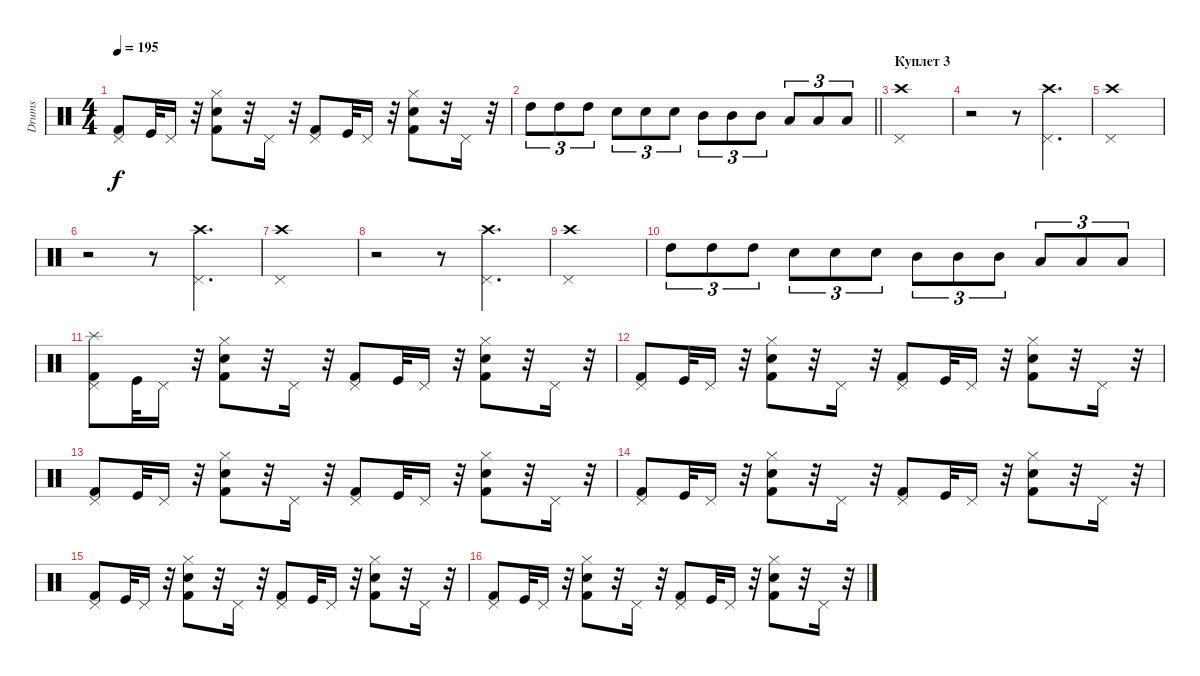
\track ("Drums" "Drums") {instrument percussion}
\staff {score}
\articulation defaults
\ts (4 4)
\tempo 195
\clef neutral
\ks c
("Kick (hit) 2" "Pedal Hi-Hat (hit)").8{dy f} "Kick (hit)".32 "Pedal Hi-Hat (hit)".16 r.32 ("Snare (hit) 2" "Kick (hit) 2" "Hi-Hat (closed)").8 r.32 "Pedal Hi-Hat (hit)".16 r.32 ("Kick (hit) 2" "Pedal Hi-Hat (hit)").8 "Kick (hit)".32 "Pedal Hi-Hat (hit)".16 r.32 ("Snare (hit) 2" "Kick (hit) 2" "Hi-Hat (closed)").8 r.32 "Pedal Hi-Hat (hit)".16 r.32 |
\barLineRight lightlight "High Tom (hit)".8{tu (3 2)} "High Tom (hit)".8{tu (3 2)} "High Tom (hit)".8{tu (3 2)} "Electric Snare (hit)".8{tu (3 2)} "Electric Snare (hit)".8{tu (3 2)} "Electric Snare (hit)".8{tu (3 2)} "Mid Tom (hit)".8{tu (3 2)} "Mid Tom (hit)".8{tu (3 2)} "Mid Tom (hit)".8{tu (3 2)} "Low Tom (hit)".8{tu (3 2)} "Low Tom (hit)".8{tu (3 2)} "Low Tom (hit)".8{tu (3 2)}
|
\section ("" "Куплет 3")
("Crash high (hit)" "Pedal Hi-Hat (hit)").1 |
r.2 r.8 ("Crash high (hit)" "Pedal Hi-Hat (hit)").4{d} |
("Crash high (hit)" "Pedal Hi-Hat (hit)").1 |
r.2 r.8 ("Crash high (hit)" "Pedal Hi-Hat (hit)").4{d} |
("Crash high (hit)" "Pedal Hi-Hat (hit)").1 |
r.2 r.8 ("Crash high (hit)" "Pedal Hi-Hat (hit)").4{d} |
("Crash high (hit)" "Pedal Hi-Hat (hit)").1 |
"High Tom (hit)".8{tu (3 2)} "High Tom (hit)".8{tu (3 2)} "High Tom (hit)".8{tu (3 2)} "Electric Snare (hit)".8{tu (3 2)} "Electric Snare (hit)".8{tu (3 2)} "Electric Snare (hit)".8{tu (3 2)} "Mid Tom (hit)".8{tu (3 2)} "Mid Tom (hit)".8{tu (3 2)} "Mid Tom (hit)".8{tu (3 2)} "Low Tom (hit)".8{tu (3 2)} "Low Tom (hit)".8{tu (3 2)} "Low Tom (hit)".8{tu (3 2)} |
("Splash (hit)" "Kick (hit) 2" "Pedal Hi-Hat (hit)").8 "Kick (hit)".32 "Pedal Hi-Hat (hit)".16 r.32 ("Snare (hit) 2" "Kick (hit) 2" "Hi-Hat (closed)").8 r.32 "Pedal Hi-Hat (hit)".16 r.32 ("Kick (hit) 2" "Pedal Hi-Hat (hit)").8 "Kick (hit)".32 "Pedal Hi-Hat (hit)".16 r.32 ("Snare (hit) 2" "Kick (hit) 2" "Hi-Hat (closed)").8 r.32 "Pedal Hi-Hat (hit)".16 r.32 |
("Kick (hit) 2" "Pedal Hi-Hat (hit)").8 "Kick (hit)".32 "Pedal Hi-Hat (hit)".16 r.32 ("Snare (hit) 2" "Kick (hit) 2" "Hi-Hat (closed)").8 r.32 "Pedal Hi-Hat (hit)".16 r.32 ("Kick (hit) 2" "Pedal Hi-Hat (hit)").8 "Kick (hit)".32 "Pedal Hi-Hat (hit)".16 r.32 ("Snare (hit) 2" "Kick (hit) 2" "Hi-Hat (closed)").8 r.32 "Pedal Hi-Hat (hit)".16 r.32 |
("Kick (hit) 2" "Pedal Hi-Hat (hit)").8 "Kick (hit)".32 "Pedal Hi-Hat (hit)".16 r.32 ("Snare (hit) 2" "Kick (hit) 2" "Hi-Hat (closed)").8 r.32 "Pedal Hi-Hat (hit)".16 r.32 ("Kick (hit) 2" "Pedal Hi-Hat (hit)").8 "Kick (hit)".32 "Pedal Hi-Hat (hit)".16 r.32 ("Snare (hit) 2" "Kick (hit) 2" "Hi-Hat (closed)").8 r.32 "Pedal Hi-Hat (hit)".16 r.32 |
("Kick (hit) 2" "Pedal Hi-Hat (hit)").8 "Kick (hit)".32 "Pedal Hi-Hat (hit)".16 r.32 ("Snare (hit) 2" "Kick (hit) 2" "Hi-Hat (closed)").8 r.32 "Pedal Hi-Hat (hit)".16 r.32 ("Kick (hit) 2" "Pedal Hi-Hat (hit)").8 "Kick (hit)".32 "Pedal Hi-Hat (hit)".16 r.32 ("Snare (hit) 2" "Kick (hit) 2" "Hi-Hat (closed)").8 r.32 "Pedal Hi-Hat (hit)".16 r.32 |
("Kick (hit) 2" "Pedal Hi-Hat (hit)").8 "Kick (hit)".32 "Pedal Hi-Hat (hit)".16 r.32 ("Snare (hit) 2" "Kick (hit) 2" "Hi-Hat (closed)").8 r.32 "Pedal Hi-Hat (hit)".16 r.32 ("Kick (hit) 2" "Pedal Hi-Hat (hit)").8 "Kick (hit)".32 "Pedal Hi-Hat (hit)".16 r.32 ("Snare (hit) 2" "Kick (hit) 2" "Hi-Hat (closed)").8 r.32 "Pedal Hi-Hat (hit)".16 r.32 |
("Kick (hit) 2" "Pedal Hi-Hat (hit)").8 "Kick (hit)".32 "Pedal Hi-Hat (hit)".16 r.32 ("Snare (hit) 2" "Kick (hit) 2" "Hi-Hat (closed)").8 r.32 "Pedal Hi-Hat (hit)".16 r.32 ("Kick (hit) 2" "Pedal Hi-Hat (hit)").8 "Kick (hit)".32 "Pedal Hi-Hat (hit)".16 r.32 ("Snare (hit) 2" "Kick (hit) 2" "Hi-Hat (closed)").8 r.32 "Pedal Hi-Hat (hit)".16 r.32
